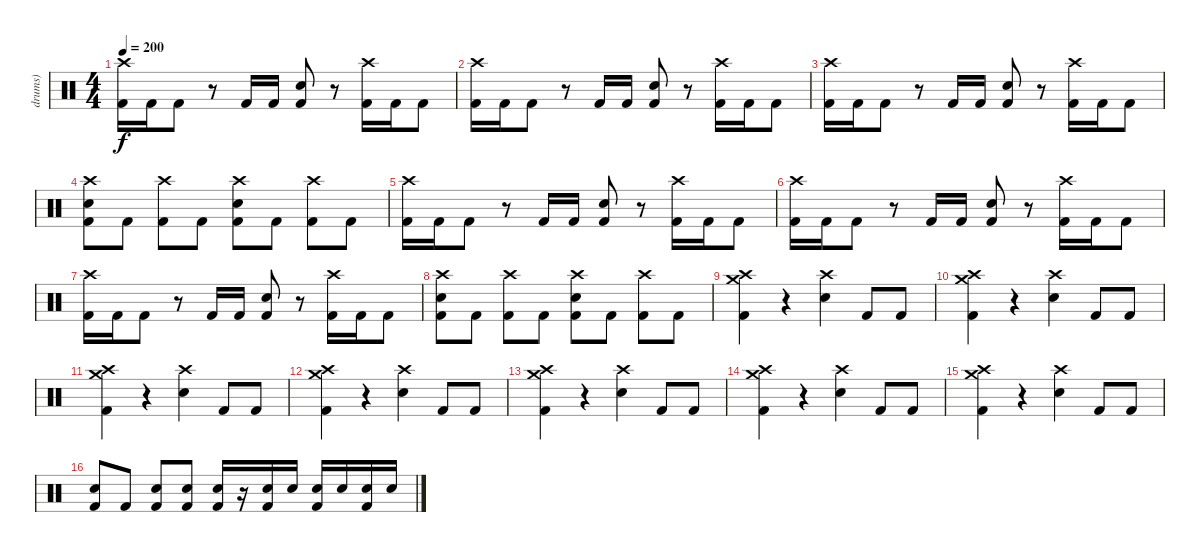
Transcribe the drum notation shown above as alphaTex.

\track ("drums)" "drums)") {instrument percussion}
\staff {score}
\articulation defaults
\ts (4 4)
\tempo 200
\clef neutral
\ks c
("Crash high (hit)" "Kick (hit) 2").16{dy f} "Kick (hit) 2".16 "Kick (hit) 2".8 r.8 "Kick (hit) 2".16 "Kick (hit) 2".16 ("Electric Snare (hit)" "Kick (hit) 2").8 r.8 ("Crash high (hit)" "Kick (hit) 2").16 "Kick (hit) 2".16 "Kick (hit) 2".8 |
("Crash high (hit)" "Kick (hit) 2").16 "Kick (hit) 2".16 "Kick (hit) 2".8 r.8 "Kick (hit) 2".16 "Kick (hit) 2".16 ("Electric Snare (hit)" "Kick (hit) 2").8 r.8 ("Crash high (hit)" "Kick (hit) 2").16 "Kick (hit) 2".16 "Kick (hit) 2".8 |
("Crash high (hit)" "Kick (hit) 2").16 "Kick (hit) 2".16 "Kick (hit) 2".8 r.8 "Kick (hit) 2".16 "Kick (hit) 2".16 ("Electric Snare (hit)" "Kick (hit) 2").8 r.8 ("Crash high (hit)" "Kick (hit) 2").16 "Kick (hit) 2".16 "Kick (hit) 2".8 |
("Crash high (hit)" "Electric Snare (hit)" "Kick (hit) 2").8 "Kick (hit) 2".8 ("Crash high (hit)" "Kick (hit) 2").8 "Kick (hit) 2".8 ("Crash high (hit)" "Electric Snare (hit)" "Kick (hit) 2").8 "Kick (hit) 2".8 ("Crash high (hit)" "Kick (hit) 2").8 "Kick (hit) 2".8 |
("Crash high (hit)" "Kick (hit) 2").16 "Kick (hit) 2".16 "Kick (hit) 2".8 r.8 "Kick (hit) 2".16 "Kick (hit) 2".16 ("Electric Snare (hit)" "Kick (hit) 2").8 r.8 ("Crash high (hit)" "Kick (hit) 2").16 "Kick (hit) 2".16 "Kick (hit) 2".8 |
("Crash high (hit)" "Kick (hit) 2").16 "Kick (hit) 2".16 "Kick (hit) 2".8 r.8 "Kick (hit) 2".16 "Kick (hit) 2".16 ("Electric Snare (hit)" "Kick (hit) 2").8 r.8 ("Crash high (hit)" "Kick (hit) 2").16 "Kick (hit) 2".16 "Kick (hit) 2".8 |
("Crash high (hit)" "Kick (hit) 2").16 "Kick (hit) 2".16 "Kick (hit) 2".8 r.8 "Kick (hit) 2".16 "Kick (hit) 2".16 ("Electric Snare (hit)" "Kick (hit) 2").8 r.8 ("Crash high (hit)" "Kick (hit) 2").16 "Kick (hit) 2".16 "Kick (hit) 2".8 |
("Crash high (hit)" "Electric Snare (hit)" "Kick (hit) 2").8 "Kick (hit) 2".8 ("Crash high (hit)" "Kick (hit) 2").8 "Kick (hit) 2".8 ("Crash high (hit)" "Electric Snare (hit)" "Kick (hit) 2").8 "Kick (hit) 2".8 ("Crash high (hit)" "Kick (hit) 2").8 "Kick (hit) 2".8 |
("Crash high (hit)" "Crash medium (hit)" "Kick (hit) 2").4 r.4 ("Crash high (hit)" "Electric Snare (hit)").4 "Kick (hit) 2".8 "Kick (hit) 2".8 |
("Crash high (hit)" "Crash medium (hit)" "Kick (hit) 2").4 r.4 ("Crash high (hit)" "Electric Snare (hit)").4 "Kick (hit) 2".8 "Kick (hit) 2".8 |
("Crash high (hit)" "Crash medium (hit)" "Kick (hit) 2").4 r.4 ("Crash high (hit)" "Electric Snare (hit)").4 "Kick (hit) 2".8 "Kick (hit) 2".8 |
("Crash high (hit)" "Crash medium (hit)" "Kick (hit) 2").4 r.4 ("Crash high (hit)" "Electric Snare (hit)").4 "Kick (hit) 2".8 "Kick (hit) 2".8 |
("Crash high (hit)" "Crash medium (hit)" "Kick (hit) 2").4 r.4 ("Crash high (hit)" "Electric Snare (hit)").4 "Kick (hit) 2".8 "Kick (hit) 2".8 |
("Crash high (hit)" "Crash medium (hit)" "Kick (hit) 2").4 r.4 ("Crash high (hit)" "Electric Snare (hit)").4 "Kick (hit) 2".8 "Kick (hit) 2".8 |
("Crash high (hit)" "Crash medium (hit)" "Kick (hit) 2").4 r.4 ("Crash high (hit)" "Electric Snare (hit)").4 "Kick (hit) 2".8 "Kick (hit) 2".8 |
("Electric Snare (hit)" "Kick (hit) 2").8 "Kick (hit) 2".8 ("Electric Snare (hit)" "Kick (hit) 2").8 ("Electric Snare (hit)" "Kick (hit) 2").8 ("Electric Snare (hit)" "Kick (hit) 2").16 r.16 ("Electric Snare (hit)" "Kick (hit) 2").16 "Electric Snare (hit)".16 ("Electric Snare (hit)" "Kick (hit) 2").16 "Electric Snare (hit)".16 ("Electric Snare (hit)" "Kick (hit) 2").16 "Electric Snare (hit)".16
